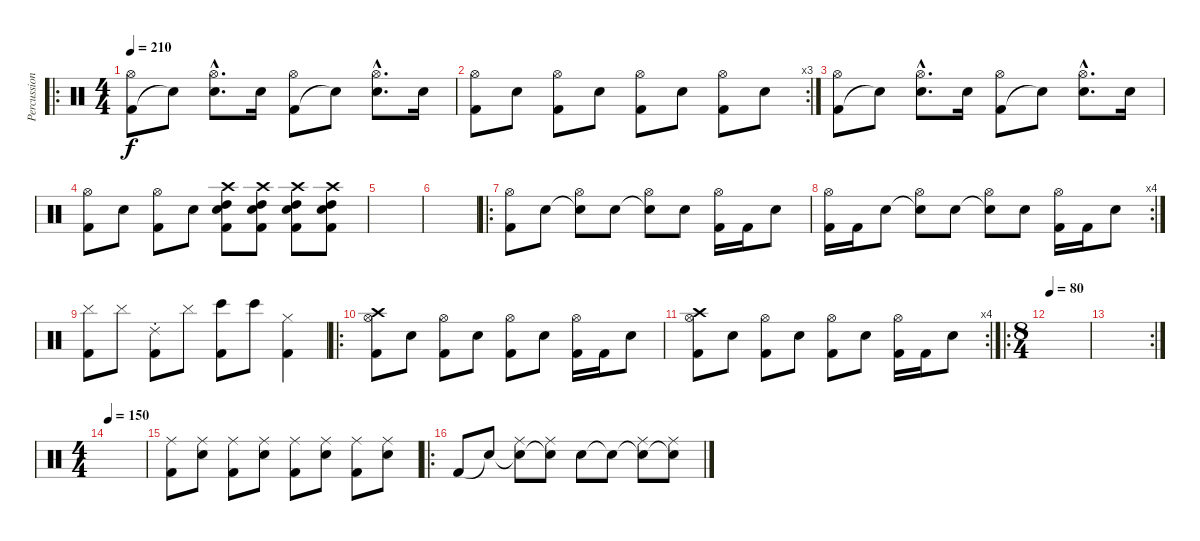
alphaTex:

\track ("Percussion" "Percussion") {instrument percussion}
\staff {score}
\articulation defaults
\ro
\ts (4 4)
\tempo 210
\clef neutral
\ks c
("Kick (hit) 2" "Hi-Hat (open)").8{dy f} "Snare (hit)"{t}.8 ("Electric Snare (hit)"{hac} "Hi-Hat (open)"{hac}).8{d} "Electric Snare (hit)".16 ("Kick (hit) 2" "Hi-Hat (open)").8 "Snare (hit)"{t}.8 ("Electric Snare (hit)"{hac} "Hi-Hat (open)"{hac}).8{d} "Electric Snare (hit)".16 |
\rc 3
("Kick (hit) 2" "Hi-Hat (open)").8 "Electric Snare (hit)".8 ("Kick (hit) 2" "Hi-Hat (open)").8 "Electric Snare (hit)".8 ("Kick (hit) 2" "Hi-Hat (open)").8 "Electric Snare (hit)".8 ("Kick (hit) 2" "Hi-Hat (open)").8 "Electric Snare (hit)".8 |
("Kick (hit) 2" "Hi-Hat (open)").8 "Snare (hit)"{t}.8 ("Electric Snare (hit)"{hac} "Hi-Hat (open)"{hac}).8{d} "Electric Snare (hit)".16 ("Kick (hit) 2" "Hi-Hat (open)").8 "Snare (hit)"{t}.8 ("Electric Snare (hit)"{hac} "Hi-Hat (open)"{hac}).8{d} "Electric Snare (hit)".16 |
("Kick (hit) 2" "Hi-Hat (open)").8 "Electric Snare (hit)".8 ("Kick (hit) 2" "Hi-Hat (open)").8 "Electric Snare (hit)".8 ("Electric Snare (hit)" "Kick (hit) 2" "High Tom (hit)" "Crash high (hit)").8 ("Electric Snare (hit)" "Kick (hit) 2" "High Tom (hit)" "Crash high (hit)").8 ("Electric Snare (hit)" "Kick (hit) 2" "High Tom (hit)" "Crash high (hit)").8 ("Electric Snare (hit)" "Kick (hit) 2" "High Tom (hit)" "Crash high (hit)").8 |
|
|
\ro
("Kick (hit) 2" "Hi-Hat (open)").8 "Electric Snare (hit)".8 ("Snare (hit)"{t} "Hi-Hat (open)").8 "Electric Snare (hit)".8 ("Snare (hit)"{t} "Hi-Hat (open)").8 "Electric Snare (hit)".8 ("Kick (hit) 2" "Hi-Hat (open)").16 "Kick (hit) 2".16 "Electric Snare (hit)".8 |
\rc 4
("Kick (hit) 2" "Hi-Hat (open)").16 "Kick (hit) 2".16 "Electric Snare (hit)".8 ("Snare (hit)"{t} "Hi-Hat (open)").8 "Electric Snare (hit)".8 ("Snare (hit)"{t} "Hi-Hat (open)").8 "Electric Snare (hit)".8 ("Kick (hit) 2" "Hi-Hat (open)").16 "Kick (hit) 2".16 "Electric Snare (hit)".8 |
("Cymbal (hit)" "Kick (hit) 2").8 "Cymbal (hit)".8 ("Ride (choke) 2" "Kick (hit) 2").8 "Cymbal (hit)".8 ("Bongo High (hit)" "Kick (hit) 2").8 "Bongo High (hit)".8 ("Hi-Hat (closed)" "Kick (hit) 2").4 |
\ro
("Kick (hit) 2" "Hi-Hat (open)" "Crash high (hit)").8 "Electric Snare (hit)".8 ("Kick (hit) 2" "Hi-Hat (open)").8 "Electric Snare (hit)".8 ("Kick (hit) 2" "Hi-Hat (open)").8 "Electric Snare (hit)".8 ("Kick (hit) 2" "Hi-Hat (open)").16 "Kick (hit) 2".16 "Electric Snare (hit)".8 |
\rc 4
("Kick (hit) 2" "Hi-Hat (open)" "Crash high (hit)").8 "Electric Snare (hit)".8 ("Kick (hit) 2" "Hi-Hat (open)").8 "Electric Snare (hit)".8 ("Kick (hit) 2" "Hi-Hat (open)").8 "Electric Snare (hit)".8 ("Kick (hit) 2" "Hi-Hat (open)").16 "Kick (hit) 2".16 "Electric Snare (hit)".8 |
\ro
\ts (8 4)
\tempo 80
|
\rc 2
|
\ts (4 4)
\tempo 150
|
("Kick (hit) 2" "Ride (middle)").8 ("Electric Snare (hit)" "Ride (middle)").8 ("Kick (hit) 2" "Ride (middle)").8 ("Electric Snare (hit)" "Ride (middle)").8 ("Kick (hit) 2" "Ride (middle)").8 ("Electric Snare (hit)" "Ride (middle)").8 ("Kick (hit) 2" "Ride (middle)").8 ("Electric Snare (hit)" "Ride (middle)").8 |
\ro "Kick (hit) 2".8 "Snare (hit)"{t}.8
("Snare (hit)"{t} "Ride (middle)").8 ("Snare (hit)"{t} "Ride (middle)").8 "Electric Snare (hit)".8 "Snare (hit)"{t}.8 ("Snare (hit)"{t} "Ride (middle)").8 ("Snare (hit)"{t} "Ride (middle)").8
